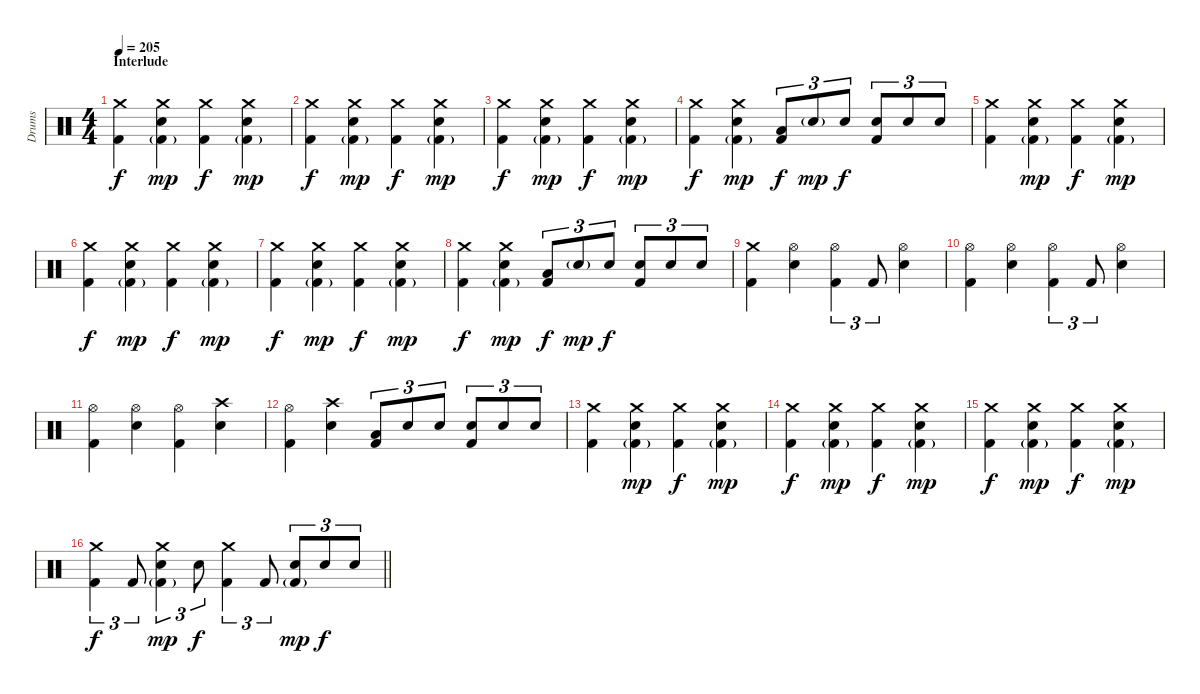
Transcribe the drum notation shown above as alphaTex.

\track ("Drums" "Drums") {instrument percussion}
\staff {score}
\articulation defaults
\ts (4 4)
\section ("" "Interlude")
\tempo 205
\clef neutral
\ks c
("Crash medium (hit)" "Kick (hit) 2").4{dy f} ("Crash medium (hit)" "Electric Snare (hit)" "Kick (hit) 2"{g}).4{dy mp} ("Crash medium (hit)" "Kick (hit) 2").4{dy f} ("Crash medium (hit)" "Electric Snare (hit)" "Kick (hit) 2"{g}).4{dy mp} |
("Crash medium (hit)" "Kick (hit) 2").4{dy f} ("Crash medium (hit)" "Electric Snare (hit)" "Kick (hit) 2"{g}).4{dy mp} ("Crash medium (hit)" "Kick (hit) 2").4{dy f} ("Crash medium (hit)" "Electric Snare (hit)" "Kick (hit) 2"{g}).4{dy mp} |
("Crash medium (hit)" "Kick (hit) 2").4{dy f} ("Crash medium (hit)" "Electric Snare (hit)" "Kick (hit) 2"{g}).4{dy mp} ("Crash medium (hit)" "Kick (hit) 2").4{dy f} ("Crash medium (hit)" "Electric Snare (hit)" "Kick (hit) 2"{g}).4{dy mp} |
("Crash medium (hit)" "Kick (hit) 2").4{dy f} ("Crash medium (hit)" "Electric Snare (hit)" "Kick (hit) 2"{g}).4{dy mp} ("Low Tom (hit)" "Kick (hit) 2").8{tu (3 2) dy f} "Electric Snare (hit)"{g}.8{tu (3 2) dy mp} "Electric Snare (hit)".8{tu (3 2) dy f} ("Electric Snare (hit)" "Kick (hit) 2").8{tu (3 2)} "Electric Snare (hit)".8{tu (3 2)} "Electric Snare (hit)".8{tu (3 2)} |
("Crash medium (hit)" "Kick (hit) 2").4 ("Crash medium (hit)" "Electric Snare (hit)" "Kick (hit) 2"{g}).4{dy mp} ("Crash medium (hit)" "Kick (hit) 2").4{dy f} ("Crash medium (hit)" "Electric Snare (hit)" "Kick (hit) 2"{g}).4{dy mp} |
("Crash medium (hit)" "Kick (hit) 2").4{dy f} ("Crash medium (hit)" "Electric Snare (hit)" "Kick (hit) 2"{g}).4{dy mp} ("Crash medium (hit)" "Kick (hit) 2").4{dy f} ("Crash medium (hit)" "Electric Snare (hit)" "Kick (hit) 2"{g}).4{dy mp} |
("Crash medium (hit)" "Kick (hit) 2").4{dy f} ("Crash medium (hit)" "Electric Snare (hit)" "Kick (hit) 2"{g}).4{dy mp} ("Crash medium (hit)" "Kick (hit) 2").4{dy f} ("Crash medium (hit)" "Electric Snare (hit)" "Kick (hit) 2"{g}).4{dy mp} |
("Crash medium (hit)" "Kick (hit) 2").4{dy f} ("Crash medium (hit)" "Electric Snare (hit)" "Kick (hit) 2"{g}).4{dy mp} ("Low Tom (hit)" "Kick (hit) 2").8{tu (3 2) dy f} "Electric Snare (hit)"{g}.8{tu (3 2) dy mp} "Electric Snare (hit)".8{tu (3 2) dy f} ("Electric Snare (hit)" "Kick (hit) 2").8{tu (3 2)} "Electric Snare (hit)".8{tu (3 2)} "Electric Snare (hit)".8{tu (3 2)} |
("Crash medium (hit)" "Kick (hit) 2").4 ("Hi-Hat (open)" "Electric Snare (hit)").4 ("Hi-Hat (open)" "Kick (hit) 2").4{tu (3 2)} "Kick (hit) 2".8{tu (3 2)} ("Hi-Hat (open)" "Electric Snare (hit)").4 |
("Hi-Hat (open)" "Kick (hit) 2").4 ("Hi-Hat (open)" "Electric Snare (hit)").4 ("Hi-Hat (open)" "Kick (hit) 2").4{tu (3 2)} "Kick (hit) 2".8{tu (3 2)} ("Hi-Hat (open)" "Electric Snare (hit)").4 |
("Hi-Hat (open)" "Kick (hit) 2").4 ("Hi-Hat (open)" "Electric Snare (hit)").4 ("Hi-Hat (open)" "Kick (hit) 2").4 ("Crash high (hit)" "Electric Snare (hit)").4 |
("Hi-Hat (open)" "Kick (hit) 2").4 ("Crash high (hit)" "Electric Snare (hit)").4 ("Low Tom (hit)" "Kick (hit) 2").8{tu (3 2)} "Electric Snare (hit)".8{tu (3 2)} "Electric Snare (hit)".8{tu (3 2)} ("Electric Snare (hit)" "Kick (hit) 2").8{tu (3 2)} "Electric Snare (hit)".8{tu (3 2)} "Electric Snare (hit)".8{tu (3 2)} |
("Crash medium (hit)" "Kick (hit) 2").4 ("Crash medium (hit)" "Electric Snare (hit)" "Kick (hit) 2"{g}).4{dy mp} ("Crash medium (hit)" "Kick (hit) 2").4{dy f} ("Crash medium (hit)" "Electric Snare (hit)" "Kick (hit) 2"{g}).4{dy mp} |
("Crash medium (hit)" "Kick (hit) 2").4{dy f} ("Crash medium (hit)" "Electric Snare (hit)" "Kick (hit) 2"{g}).4{dy mp} ("Crash medium (hit)" "Kick (hit) 2").4{dy f} ("Crash medium (hit)" "Electric Snare (hit)" "Kick (hit) 2"{g}).4{dy mp} |
("Crash medium (hit)" "Kick (hit) 2").4{dy f} ("Crash medium (hit)" "Electric Snare (hit)" "Kick (hit) 2"{g}).4{dy mp} ("Crash medium (hit)" "Kick (hit) 2").4{dy f} ("Crash medium (hit)" "Electric Snare (hit)" "Kick (hit) 2"{g}).4{dy mp} |
\barLineRight lightlight
("Crash medium (hit)" "Kick (hit) 2").4{tu (3 2) dy f} "Kick (hit) 2".8{tu (3 2)} ("Crash medium (hit)" "Electric Snare (hit)" "Kick (hit) 2"{g}).4{tu (3 2) dy mp} "Electric Snare (hit)".8{tu (3 2) dy f} ("Crash medium (hit)" "Kick (hit) 2").4{tu (3 2)} "Kick (hit) 2".8{tu (3 2)} ("Electric Snare (hit)" "Kick (hit) 2"{g}).8{tu (3 2) dy mp} "Electric Snare (hit)".8{tu (3 2) dy f} "Electric Snare (hit)".8{tu (3 2)}
